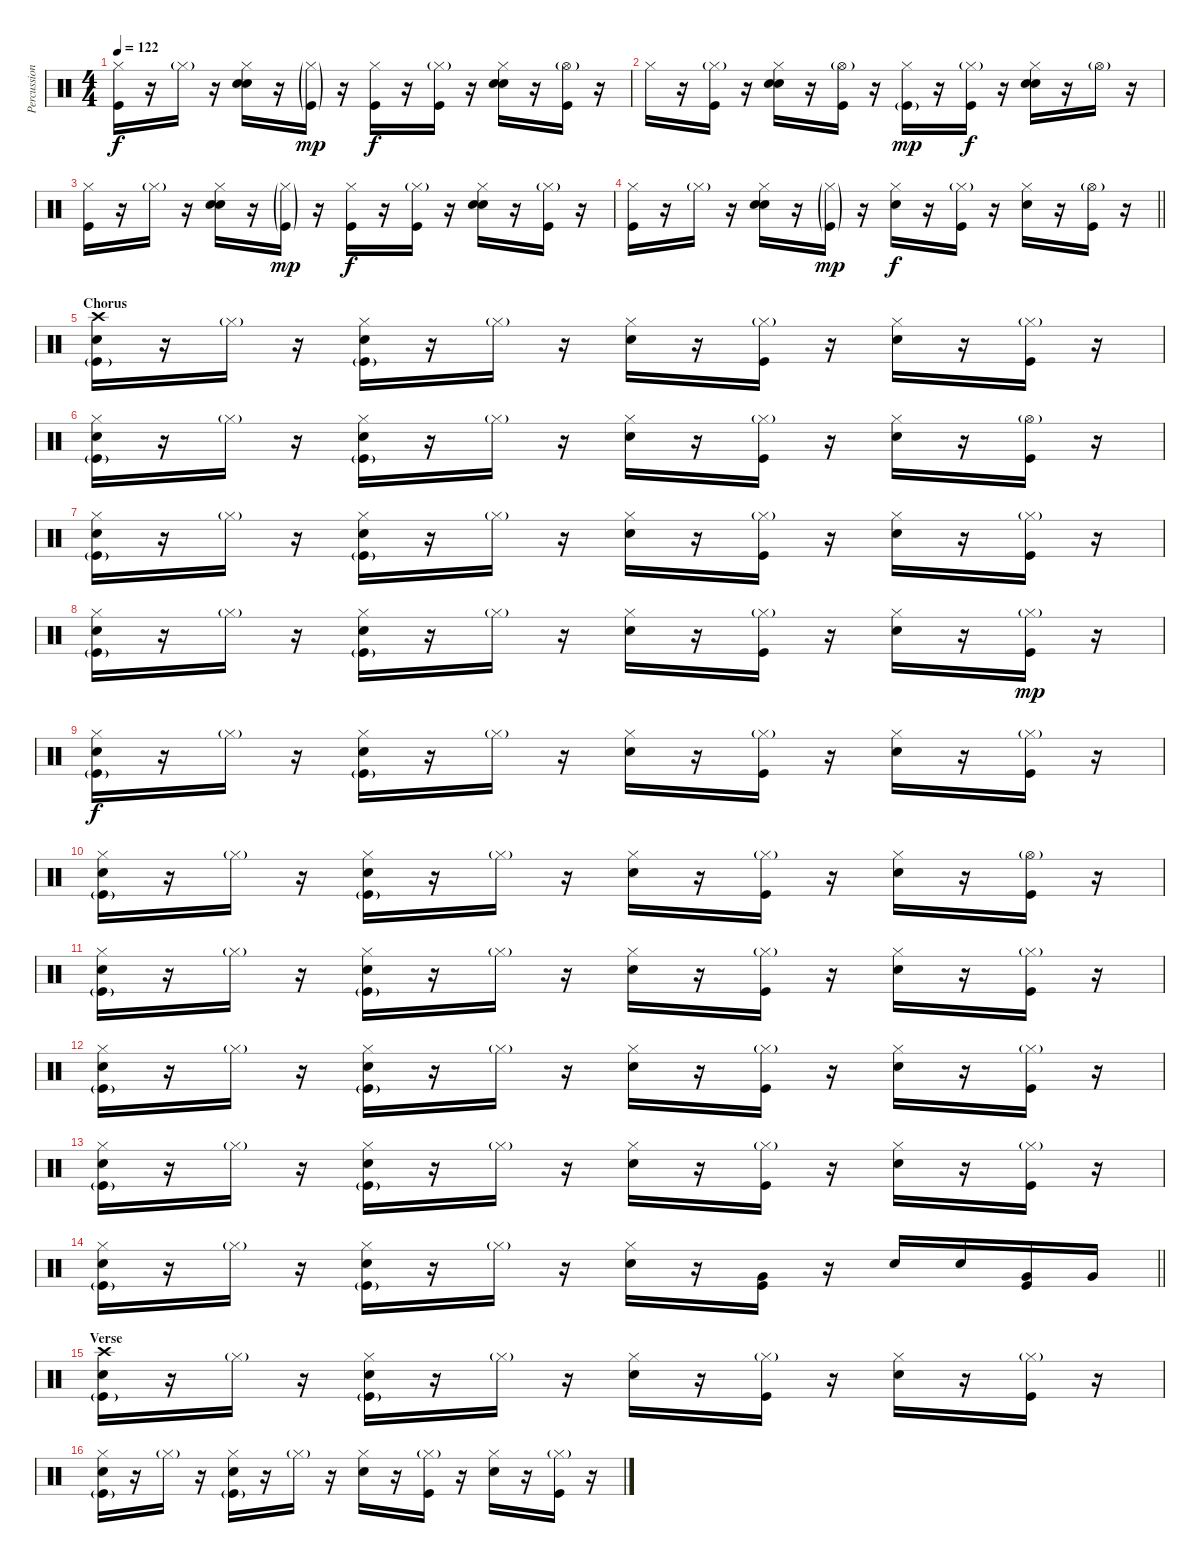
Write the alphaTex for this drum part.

\track ("Percussion" "Percussion") {instrument percussion bank 177}
\staff {score}
\articulation defaults
\ts (4 4)
\tempo 122
\clef neutral
\ks c
("Hi-Hat (closed)" "Kick (hit)").16{dy f} r.16 "Hi-Hat (closed)"{g}.16 r.16 ("Hi-Hat (closed)" "Hand Clap (hit)" "Snare (hit) 2").16 r.16 ("Hi-Hat (closed)"{g} "Kick (hit)"{g}).16{dy mp} r.16 ("Hi-Hat (closed)" "Kick (hit)").16{dy f} r.16 ("Hi-Hat (closed)"{g} "Kick (hit)").16 r.16 ("Hi-Hat (closed)" "Hand Clap (hit)" "Snare (hit) 2").16 r.16 ("Hi-Hat (open)"{g} "Kick (hit)").16 r.16 |
"Hi-Hat (closed)".16 r.16 ("Hi-Hat (closed)"{g} "Kick (hit)").16 r.16 ("Hi-Hat (closed)" "Hand Clap (hit)" "Snare (hit) 2").16 r.16 ("Hi-Hat (open)"{g} "Kick (hit)").16 r.16 ("Hi-Hat (closed)" "Kick (hit)"{g}).16{dy mp} r.16 ("Hi-Hat (closed)"{g} "Kick (hit)").16{dy f} r.16 ("Hi-Hat (closed)" "Hand Clap (hit)" "Snare (hit) 2").16 r.16 "Hi-Hat (open)"{g}.16 r.16 |
("Hi-Hat (closed)" "Kick (hit)").16 r.16 "Hi-Hat (closed)"{g}.16 r.16 ("Hi-Hat (closed)" "Hand Clap (hit)" "Snare (hit) 2").16 r.16 ("Hi-Hat (closed)"{g} "Kick (hit)"{g}).16{dy mp} r.16 ("Hi-Hat (closed)" "Kick (hit)").16{dy f} r.16 ("Hi-Hat (closed)"{g} "Kick (hit)").16 r.16 ("Hi-Hat (closed)" "Hand Clap (hit)" "Snare (hit) 2").16 r.16 ("Hi-Hat (closed)"{g} "Kick (hit)").16 r.16 |
\barLineRight lightlight
("Hi-Hat (closed)" "Kick (hit)").16 r.16 "Hi-Hat (closed)"{g}.16 r.16 ("Hi-Hat (closed)" "Hand Clap (hit)" "Snare (hit) 2").16 r.16 ("Hi-Hat (closed)"{g} "Kick (hit)"{g}).16{dy mp} r.16 ("Hi-Hat (closed)" "Snare (hit) 2").16{dy f} r.16 ("Hi-Hat (closed)"{g} "Kick (hit)").16 r.16 ("Hi-Hat (closed)" "Snare (hit) 2").16 r.16 ("Hi-Hat (open)"{g} "Kick (hit)").16 r.16 |
\section ("" "Chorus")
("Crash high (hit)" "Snare (hit) 2" "Kick (hit)"{g}).16 r.16 "Hi-Hat (closed)"{g}.16 r.16 ("Hi-Hat (closed)" "Snare (hit) 2" "Kick (hit)"{g}).16 r.16 "Hi-Hat (closed)"{g}.16 r.16 ("Hi-Hat (closed)" "Snare (hit) 2").16 r.16 ("Hi-Hat (closed)"{g} "Kick (hit)").16 r.16 ("Hi-Hat (closed)" "Snare (hit) 2").16 r.16 ("Hi-Hat (closed)"{g} "Kick (hit)").16 r.16 |
("Hi-Hat (closed)" "Snare (hit) 2" "Kick (hit)"{g}).16 r.16 "Hi-Hat (closed)"{g}.16 r.16 ("Hi-Hat (closed)" "Snare (hit) 2" "Kick (hit)"{g}).16 r.16 "Hi-Hat (closed)"{g}.16 r.16 ("Hi-Hat (closed)" "Snare (hit) 2").16 r.16 ("Hi-Hat (closed)"{g} "Kick (hit)").16 r.16 ("Hi-Hat (closed)" "Snare (hit) 2").16 r.16 ("Hi-Hat (open)"{g} "Kick (hit)").16 r.16 |
("Hi-Hat (closed)" "Snare (hit) 2" "Kick (hit)"{g}).16 r.16 "Hi-Hat (closed)"{g}.16 r.16 ("Hi-Hat (closed)" "Snare (hit) 2" "Kick (hit)"{g}).16 r.16 "Hi-Hat (closed)"{g}.16 r.16 ("Hi-Hat (closed)" "Snare (hit) 2").16 r.16 ("Hi-Hat (closed)"{g} "Kick (hit)").16 r.16 ("Hi-Hat (closed)" "Snare (hit) 2").16 r.16 ("Hi-Hat (closed)"{g} "Kick (hit)").16 r.16 |
("Hi-Hat (closed)" "Snare (hit) 2" "Kick (hit)"{g}).16 r.16 "Hi-Hat (closed)"{g}.16 r.16 ("Hi-Hat (closed)" "Snare (hit) 2" "Kick (hit)"{g}).16 r.16 "Hi-Hat (closed)"{g}.16 r.16 ("Hi-Hat (closed)" "Snare (hit) 2").16 r.16 ("Hi-Hat (closed)"{g} "Kick (hit)").16 r.16 ("Hi-Hat (closed)" "Snare (hit) 2").16 r.16 ("Hi-Hat (closed)"{g} "Kick (hit)").16{dy mp} r.16 |
("Hi-Hat (closed)" "Snare (hit) 2" "Kick (hit)"{g}).16{dy f} r.16 "Hi-Hat (closed)"{g}.16 r.16 ("Hi-Hat (closed)" "Snare (hit) 2" "Kick (hit)"{g}).16 r.16 "Hi-Hat (closed)"{g}.16 r.16 ("Hi-Hat (closed)" "Snare (hit) 2").16 r.16 ("Hi-Hat (closed)"{g} "Kick (hit)").16 r.16 ("Hi-Hat (closed)" "Snare (hit) 2").16 r.16 ("Hi-Hat (closed)"{g} "Kick (hit)").16 r.16 |
("Hi-Hat (closed)" "Snare (hit) 2" "Kick (hit)"{g}).16 r.16 "Hi-Hat (closed)"{g}.16 r.16 ("Hi-Hat (closed)" "Snare (hit) 2" "Kick (hit)"{g}).16 r.16 "Hi-Hat (closed)"{g}.16 r.16 ("Hi-Hat (closed)" "Snare (hit) 2").16 r.16 ("Hi-Hat (closed)"{g} "Kick (hit)").16 r.16 ("Hi-Hat (closed)" "Snare (hit) 2").16 r.16 ("Hi-Hat (open)"{g} "Kick (hit)").16 r.16 |
("Hi-Hat (closed)" "Snare (hit) 2" "Kick (hit)"{g}).16 r.16 "Hi-Hat (closed)"{g}.16 r.16 ("Hi-Hat (closed)" "Snare (hit) 2" "Kick (hit)"{g}).16 r.16 "Hi-Hat (closed)"{g}.16 r.16 ("Hi-Hat (closed)" "Snare (hit) 2").16 r.16 ("Hi-Hat (closed)"{g} "Kick (hit)").16 r.16 ("Hi-Hat (closed)" "Snare (hit) 2").16 r.16 ("Hi-Hat (closed)"{g} "Kick (hit)").16 r.16 |
("Hi-Hat (closed)" "Snare (hit) 2" "Kick (hit)"{g}).16 r.16 "Hi-Hat (closed)"{g}.16 r.16 ("Hi-Hat (closed)" "Snare (hit) 2" "Kick (hit)"{g}).16 r.16 "Hi-Hat (closed)"{g}.16 r.16 ("Hi-Hat (closed)" "Snare (hit) 2").16 r.16 ("Hi-Hat (closed)"{g} "Kick (hit)").16 r.16 ("Hi-Hat (closed)" "Snare (hit) 2").16 r.16 ("Hi-Hat (closed)"{g} "Kick (hit)").16 r.16 |
("Hi-Hat (closed)" "Snare (hit) 2" "Kick (hit)"{g}).16 r.16 "Hi-Hat (closed)"{g}.16 r.16 ("Hi-Hat (closed)" "Snare (hit) 2" "Kick (hit)"{g}).16 r.16 "Hi-Hat (closed)"{g}.16 r.16 ("Hi-Hat (closed)" "Snare (hit) 2").16 r.16 ("Hi-Hat (closed)"{g} "Kick (hit)").16 r.16 ("Hi-Hat (closed)" "Snare (hit) 2").16 r.16 ("Hi-Hat (closed)"{g} "Kick (hit)").16 r.16 |
\barLineRight lightlight
("Hi-Hat (closed)" "Snare (hit) 2" "Kick (hit)"{g}).16 r.16 "Hi-Hat (closed)"{g}.16 r.16 ("Hi-Hat (closed)" "Snare (hit) 2" "Kick (hit)"{g}).16 r.16 "Hi-Hat (closed)"{g}.16 r.16 ("Hi-Hat (closed)" "Snare (hit) 2").16 r.16 ("Very Low Tom (hit)" "Kick (hit)").16 r.16 "Snare (hit) 2".16 "Snare (hit) 2".16 ("Very Low Tom (hit)" "Kick (hit)").16 "Very Low Tom (hit)".16 |
\section ("" "Verse")
("Crash high (hit)" "Snare (hit) 2" "Kick (hit)"{g}).16 r.16 "Hi-Hat (closed)"{g}.16 r.16 ("Hi-Hat (closed)" "Snare (hit) 2" "Kick (hit)"{g}).16 r.16 "Hi-Hat (closed)"{g}.16 r.16 ("Hi-Hat (closed)" "Snare (hit) 2").16 r.16 ("Hi-Hat (closed)"{g} "Kick (hit)").16 r.16 ("Hi-Hat (closed)" "Snare (hit) 2").16 r.16 ("Hi-Hat (closed)"{g} "Kick (hit)").16 r.16 |
("Hi-Hat (closed)" "Snare (hit) 2" "Kick (hit)"{g}).16 r.16 "Hi-Hat (closed)"{g}.16 r.16 ("Hi-Hat (closed)" "Snare (hit) 2" "Kick (hit)"{g}).16 r.16 "Hi-Hat (closed)"{g}.16 r.16 ("Hi-Hat (closed)" "Snare (hit) 2").16 r.16 ("Hi-Hat (closed)"{g} "Kick (hit)").16 r.16 ("Hi-Hat (closed)" "Snare (hit) 2").16 r.16 ("Hi-Hat (closed)"{g} "Kick (hit)").16 r.16
